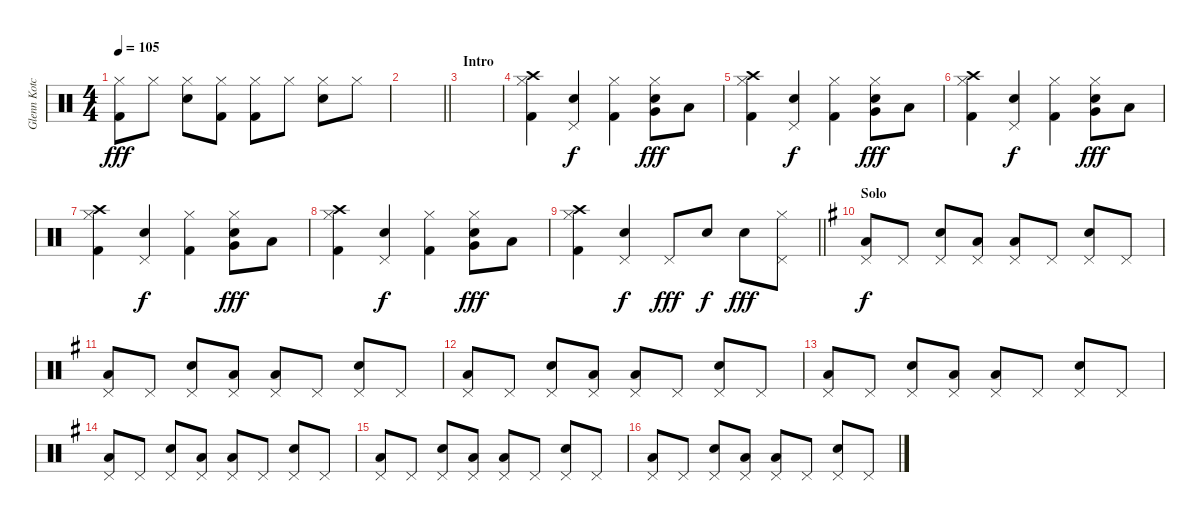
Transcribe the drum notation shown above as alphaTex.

\track ("Glenn Kotche" "Glenn Kotc") {mute instrument percussion}
\staff {score}
\articulation defaults
\ts (4 4)
\tempo 105
\clef neutral
\ks c
("Hi-Hat (closed)" "Kick (hit) 2").8{dy fff} "Hi-Hat (closed)".8 ("Hi-Hat (closed)" "Electric Snare (hit)").8 ("Hi-Hat (closed)" "Kick (hit) 2").8 ("Hi-Hat (closed)" "Kick (hit) 2").8 "Hi-Hat (closed)".8 ("Hi-Hat (closed)" "Electric Snare (hit)").8 "Hi-Hat (closed)".8 |
\barLineRight lightlight
|
\section ("" "Intro")
|
("Hi-Hat (closed)" "Kick (hit) 2" "Crash high (hit)").4 ("Pedal Hi-Hat (hit)" "Electric Snare (hit)").4{dy f} ("Hi-Hat (closed)" "Kick (hit) 2").4 ("Hi-Hat (closed)" "Electric Snare (hit)" "Very Low Tom (hit)").8{dy fff} "Low Floor Tom (hit)".8 |
("Hi-Hat (closed)" "Kick (hit) 2" "Crash high (hit)").4 ("Pedal Hi-Hat (hit)" "Electric Snare (hit)").4{dy f} ("Hi-Hat (closed)" "Kick (hit) 2").4 ("Hi-Hat (closed)" "Electric Snare (hit)" "Very Low Tom (hit)").8{dy fff} "Low Floor Tom (hit)".8 |
("Hi-Hat (closed)" "Kick (hit) 2" "Crash high (hit)").4 ("Pedal Hi-Hat (hit)" "Electric Snare (hit)").4{dy f} ("Hi-Hat (closed)" "Kick (hit) 2").4 ("Hi-Hat (closed)" "Electric Snare (hit)" "Very Low Tom (hit)").8{dy fff} "Low Floor Tom (hit)".8 |
("Hi-Hat (closed)" "Kick (hit) 2" "Crash high (hit)").4 ("Pedal Hi-Hat (hit)" "Electric Snare (hit)").4{dy f} ("Hi-Hat (closed)" "Kick (hit) 2").4 ("Hi-Hat (closed)" "Electric Snare (hit)" "Very Low Tom (hit)").8{dy fff} "Low Floor Tom (hit)".8 |
("Hi-Hat (closed)" "Kick (hit) 2" "Crash high (hit)").4 ("Pedal Hi-Hat (hit)" "Electric Snare (hit)").4{dy f} ("Hi-Hat (closed)" "Kick (hit) 2").4 ("Hi-Hat (closed)" "Electric Snare (hit)" "Very Low Tom (hit)").8{dy fff} "Low Floor Tom (hit)".8 |
\barLineRight lightlight
("Hi-Hat (closed)" "Kick (hit) 2" "Crash high (hit)").4 ("Pedal Hi-Hat (hit)" "Electric Snare (hit)").4{dy f} "Pedal Hi-Hat (hit)".8{dy fff} "Electric Snare (hit)".8{dy f} "Electric Snare (hit)".8{dy fff} ("Pedal Hi-Hat (hit)" "Hi-Hat (closed)").8 |
\section ("" "Solo")
\ks g
("Pedal Hi-Hat (hit)" "Low Floor Tom (hit)").8{dy f} "Pedal Hi-Hat (hit)".8 ("Pedal Hi-Hat (hit)" "Snare (hit) 2").8 ("Pedal Hi-Hat (hit)" "Low Floor Tom (hit)").8 ("Pedal Hi-Hat (hit)" "Low Floor Tom (hit)").8 "Pedal Hi-Hat (hit)".8 ("Pedal Hi-Hat (hit)" "Snare (hit) 2").8 "Pedal Hi-Hat (hit)".8 |
("Pedal Hi-Hat (hit)" "Low Floor Tom (hit)").8 "Pedal Hi-Hat (hit)".8 ("Pedal Hi-Hat (hit)" "Snare (hit) 2").8 ("Pedal Hi-Hat (hit)" "Low Floor Tom (hit)").8 ("Pedal Hi-Hat (hit)" "Low Floor Tom (hit)").8 "Pedal Hi-Hat (hit)".8 ("Pedal Hi-Hat (hit)" "Snare (hit) 2").8 "Pedal Hi-Hat (hit)".8 |
("Pedal Hi-Hat (hit)" "Low Floor Tom (hit)").8 "Pedal Hi-Hat (hit)".8 ("Pedal Hi-Hat (hit)" "Snare (hit) 2").8 ("Pedal Hi-Hat (hit)" "Low Floor Tom (hit)").8 ("Pedal Hi-Hat (hit)" "Low Floor Tom (hit)").8 "Pedal Hi-Hat (hit)".8 ("Pedal Hi-Hat (hit)" "Snare (hit) 2").8 "Pedal Hi-Hat (hit)".8 |
("Pedal Hi-Hat (hit)" "Low Floor Tom (hit)").8 "Pedal Hi-Hat (hit)".8 ("Pedal Hi-Hat (hit)" "Snare (hit) 2").8 ("Pedal Hi-Hat (hit)" "Low Floor Tom (hit)").8 ("Pedal Hi-Hat (hit)" "Low Floor Tom (hit)").8 "Pedal Hi-Hat (hit)".8 ("Pedal Hi-Hat (hit)" "Snare (hit) 2").8 "Pedal Hi-Hat (hit)".8 |
("Pedal Hi-Hat (hit)" "Low Floor Tom (hit)").8 "Pedal Hi-Hat (hit)".8 ("Pedal Hi-Hat (hit)" "Snare (hit) 2").8 ("Pedal Hi-Hat (hit)" "Low Floor Tom (hit)").8 ("Pedal Hi-Hat (hit)" "Low Floor Tom (hit)").8 "Pedal Hi-Hat (hit)".8 ("Pedal Hi-Hat (hit)" "Snare (hit) 2").8 "Pedal Hi-Hat (hit)".8 |
("Pedal Hi-Hat (hit)" "Low Floor Tom (hit)").8 "Pedal Hi-Hat (hit)".8 ("Pedal Hi-Hat (hit)" "Snare (hit) 2").8 ("Pedal Hi-Hat (hit)" "Low Floor Tom (hit)").8 ("Pedal Hi-Hat (hit)" "Low Floor Tom (hit)").8 "Pedal Hi-Hat (hit)".8 ("Pedal Hi-Hat (hit)" "Snare (hit) 2").8 "Pedal Hi-Hat (hit)".8 |
("Pedal Hi-Hat (hit)" "Low Floor Tom (hit)").8 "Pedal Hi-Hat (hit)".8 ("Pedal Hi-Hat (hit)" "Snare (hit) 2").8 ("Pedal Hi-Hat (hit)" "Low Floor Tom (hit)").8 ("Pedal Hi-Hat (hit)" "Low Floor Tom (hit)").8 "Pedal Hi-Hat (hit)".8 ("Pedal Hi-Hat (hit)" "Snare (hit) 2").8 "Pedal Hi-Hat (hit)".8
